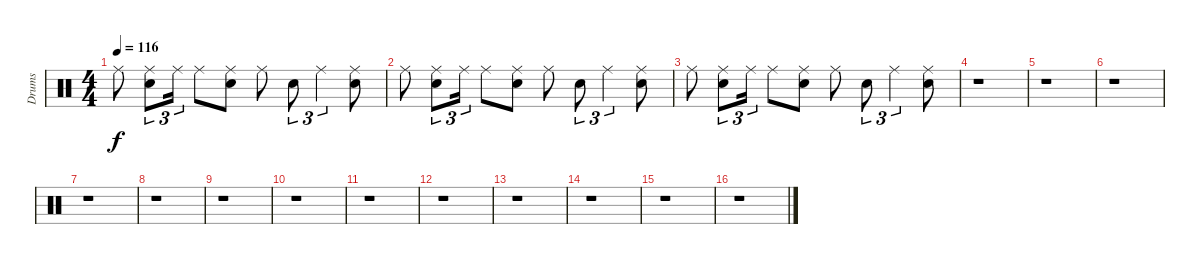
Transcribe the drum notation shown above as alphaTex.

\track ("Drums" "Drums") {instrument percussion}
\staff {score}
\articulation defaults
\ts (4 4)
\tempo 116
\clef neutral
\ks c "Ride (middle)".8{dy f}
("Ride (middle)" "Snare (hit) 2").8{tu (3 2)} "Ride (middle)".16{tu (3 2)} "Ride (middle)".8 ("Ride (middle)" "Snare (hit) 2").8 "Ride (middle)".8 "Snare (hit) 2".8{tu (3 2)} "Ride (middle)".4{tu (3 2)} ("Ride (middle)" "Snare (hit) 2").8 |
"Ride (middle)".8 ("Ride (middle)" "Snare (hit) 2").8{tu (3 2)} "Ride (middle)".16{tu (3 2)} "Ride (middle)".8 ("Ride (middle)" "Snare (hit) 2").8 "Ride (middle)".8 "Snare (hit) 2".8{tu (3 2)} "Ride (middle)".4{tu (3 2)} ("Ride (middle)" "Snare (hit) 2").8 |
"Ride (middle)".8 ("Ride (middle)" "Snare (hit) 2").8{tu (3 2)} "Ride (middle)".16{tu (3 2)} "Ride (middle)".8 ("Ride (middle)" "Snare (hit) 2").8 "Ride (middle)".8 "Snare (hit) 2".8{tu (3 2)} "Ride (middle)".4{tu (3 2)} ("Ride (middle)" "Snare (hit) 2").8 |
r.1 |
r.1 |
r.1 |
r.1 |
r.1 |
r.1 |
r.1 |
r.1 |
r.1 |
r.1 |
r.1 |
r.1 |
r.1
